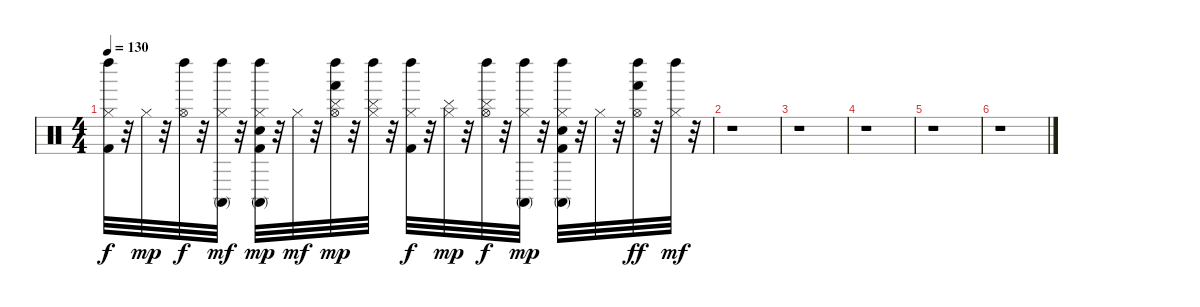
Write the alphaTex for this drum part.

\track "" {instrument percussion}
\staff {score}
\articulation defaults
\ts (4 4)
\tempo 130
\clef neutral
\ks c
("Left Maraca (hit)" "Hi-Hat (closed)" "Kick (hit) 2").32{dy f} r.32 "Hi-Hat (closed)".32{dy mp} r.32 ("Hi-Hat (open)" "Left Maraca (hit)").32{dy f} r.32 ("Conga high (mute)" "Hi-Hat (closed)" "Left Maraca (hit)").32{dy mf} r.32 ("Left Maraca (hit)" "Hand Clap (hit)" "Hi-Hat (closed)" "Kick (hit) 2" "Conga high (mute)").32{dy mp} r.32 "Hi-Hat (closed)".32{dy mf} r.32 ("Hand (hit)" "Left Maraca (hit)" "Cymbal (hit)" "Hi-Hat (open)").32{dy mp} r.32 ("Left Maraca (hit)" "Cymbal (hit)" "Hi-Hat (closed)").32 r.32 ("Left Maraca (hit)" "Kick (hit) 2" "Hi-Hat (closed)").32{dy f} r.32 ("Cymbal (hit)" "Hi-Hat (closed)").32{dy mp} r.32 ("Hi-Hat (open)" "Cymbal (hit)" "Left Maraca (hit)").32{dy f} r.32 ("Conga high (mute)" "Hi-Hat (closed)" "Left Maraca (hit)").32{dy mp} r.32 ("Kick (hit) 2" "Hi-Hat (closed)" "Left Maraca (hit)" "Conga high (mute)" "Hand Clap (hit)").32 r.32 "Hi-Hat (closed)".32 r.32 ("Hand (hit)" "Hi-Hat (open)" "Left Maraca (hit)").32{dy ff} r.32 ("Hi-Hat (closed)" "Left Maraca (hit)").32{dy mf} r.32 |
r.1 |
r.1 |
r.1 |
r.1 |
r.1
